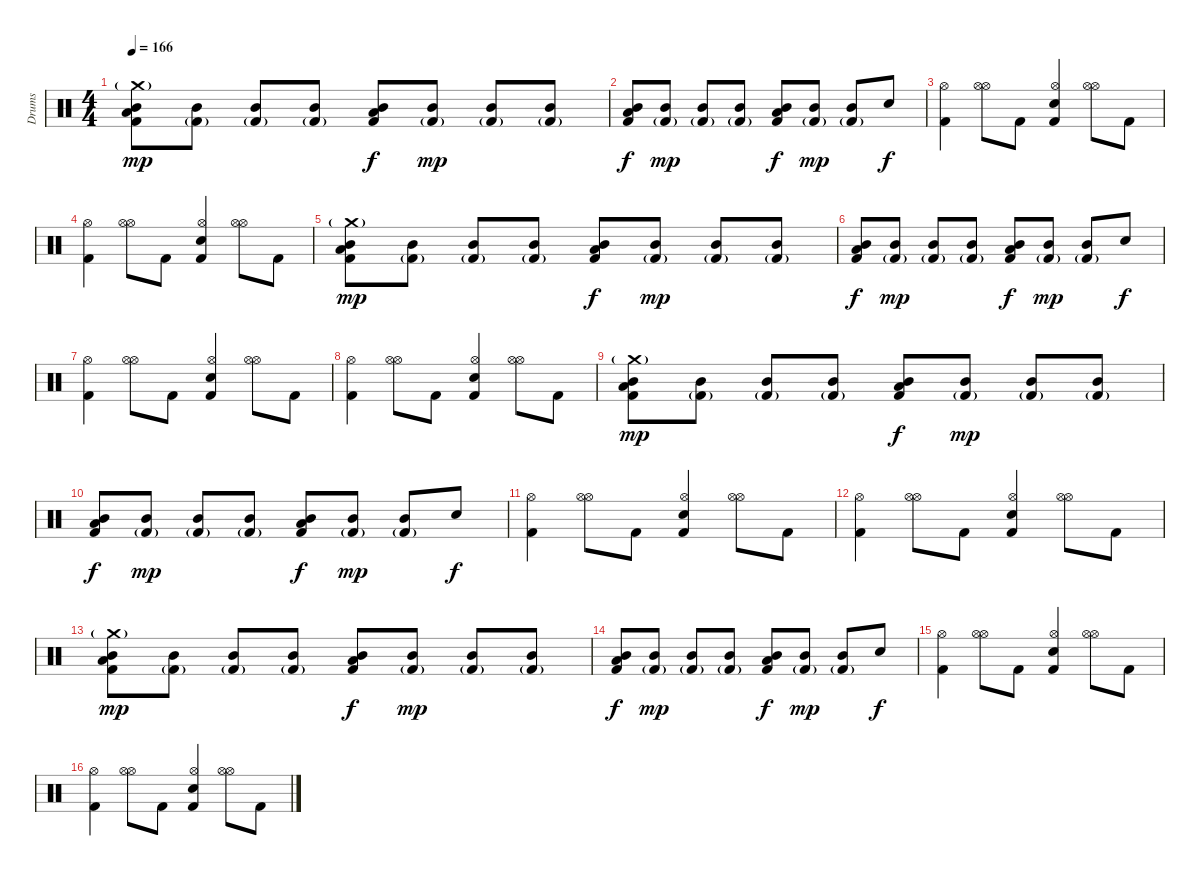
\track ("Drums" "Drums") {instrument percussion}
\staff {score}
\articulation defaults
\ts (4 4)
\tempo 166
\clef neutral
\ks c
("Crash medium (hit)"{g} "Low Floor Tom (hit)" "Kick (hit) 2" "Mid Tom (hit)").8{dy mp} ("Kick (hit) 2"{g} "Mid Tom (hit)").8 ("Kick (hit) 2"{g} "Mid Tom (hit)").8 ("Kick (hit) 2"{g} "Mid Tom (hit)").8 ("Low Floor Tom (hit)" "Kick (hit) 2" "Mid Tom (hit)").8{dy f} ("Kick (hit) 2"{g} "Mid Tom (hit)").8{dy mp} ("Kick (hit) 2"{g} "Mid Tom (hit)").8 ("Kick (hit) 2"{g} "Mid Tom (hit)").8 |
("Low Floor Tom (hit)" "Kick (hit) 2" "Mid Tom (hit)").8{dy f} ("Kick (hit) 2"{g} "Mid Tom (hit)").8{dy mp} ("Kick (hit) 2"{g} "Mid Tom (hit)").8 ("Kick (hit) 2"{g} "Mid Tom (hit)").8 ("Low Floor Tom (hit)" "Kick (hit) 2" "Mid Tom (hit)").8{dy f} ("Kick (hit) 2"{g} "Mid Tom (hit)").8{dy mp} ("Kick (hit) 2"{g} "Mid Tom (hit)").8 "Snare (hit) 2".8{dy f} |
("Hi-Hat (open)" "Kick (hit) 2").4 ("Hi-Hat (open)" "Hi-Hat (open)").8 "Kick (hit) 2".8 ("Hi-Hat (open)" "Kick (hit) 2" "Electric Snare (hit)").4 ("Hi-Hat (open)" "Hi-Hat (open)").8 "Kick (hit) 2".8 |
("Hi-Hat (open)" "Kick (hit) 2").4 ("Hi-Hat (open)" "Hi-Hat (open)").8 "Kick (hit) 2".8 ("Hi-Hat (open)" "Kick (hit) 2" "Electric Snare (hit)").4 ("Hi-Hat (open)" "Hi-Hat (open)").8 "Kick (hit) 2".8 |
("Crash medium (hit)"{g} "Low Floor Tom (hit)" "Kick (hit) 2" "Mid Tom (hit)").8{dy mp} ("Kick (hit) 2"{g} "Mid Tom (hit)").8 ("Kick (hit) 2"{g} "Mid Tom (hit)").8 ("Kick (hit) 2"{g} "Mid Tom (hit)").8 ("Low Floor Tom (hit)" "Kick (hit) 2" "Mid Tom (hit)").8{dy f} ("Kick (hit) 2"{g} "Mid Tom (hit)").8{dy mp} ("Kick (hit) 2"{g} "Mid Tom (hit)").8 ("Kick (hit) 2"{g} "Mid Tom (hit)").8 |
("Low Floor Tom (hit)" "Kick (hit) 2" "Mid Tom (hit)").8{dy f} ("Kick (hit) 2"{g} "Mid Tom (hit)").8{dy mp} ("Kick (hit) 2"{g} "Mid Tom (hit)").8 ("Kick (hit) 2"{g} "Mid Tom (hit)").8 ("Low Floor Tom (hit)" "Kick (hit) 2" "Mid Tom (hit)").8{dy f} ("Kick (hit) 2"{g} "Mid Tom (hit)").8{dy mp} ("Kick (hit) 2"{g} "Mid Tom (hit)").8 "Snare (hit) 2".8{dy f} |
("Hi-Hat (open)" "Kick (hit) 2").4 ("Hi-Hat (open)" "Hi-Hat (open)").8 "Kick (hit) 2".8 ("Hi-Hat (open)" "Kick (hit) 2" "Electric Snare (hit)").4 ("Hi-Hat (open)" "Hi-Hat (open)").8 "Kick (hit) 2".8 |
("Hi-Hat (open)" "Kick (hit) 2").4 ("Hi-Hat (open)" "Hi-Hat (open)").8 "Kick (hit) 2".8 ("Hi-Hat (open)" "Kick (hit) 2" "Electric Snare (hit)").4 ("Hi-Hat (open)" "Hi-Hat (open)").8 "Kick (hit) 2".8 |
("Crash medium (hit)"{g} "Low Floor Tom (hit)" "Kick (hit) 2" "Mid Tom (hit)").8{dy mp} ("Kick (hit) 2"{g} "Mid Tom (hit)").8 ("Kick (hit) 2"{g} "Mid Tom (hit)").8 ("Kick (hit) 2"{g} "Mid Tom (hit)").8 ("Low Floor Tom (hit)" "Kick (hit) 2" "Mid Tom (hit)").8{dy f} ("Kick (hit) 2"{g} "Mid Tom (hit)").8{dy mp} ("Kick (hit) 2"{g} "Mid Tom (hit)").8 ("Kick (hit) 2"{g} "Mid Tom (hit)").8 |
("Low Floor Tom (hit)" "Kick (hit) 2" "Mid Tom (hit)").8{dy f} ("Kick (hit) 2"{g} "Mid Tom (hit)").8{dy mp} ("Kick (hit) 2"{g} "Mid Tom (hit)").8 ("Kick (hit) 2"{g} "Mid Tom (hit)").8 ("Low Floor Tom (hit)" "Kick (hit) 2" "Mid Tom (hit)").8{dy f} ("Kick (hit) 2"{g} "Mid Tom (hit)").8{dy mp} ("Kick (hit) 2"{g} "Mid Tom (hit)").8 "Snare (hit) 2".8{dy f} |
("Hi-Hat (open)" "Kick (hit) 2").4 ("Hi-Hat (open)" "Hi-Hat (open)").8 "Kick (hit) 2".8 ("Hi-Hat (open)" "Kick (hit) 2" "Electric Snare (hit)").4 ("Hi-Hat (open)" "Hi-Hat (open)").8 "Kick (hit) 2".8 |
("Hi-Hat (open)" "Kick (hit) 2").4 ("Hi-Hat (open)" "Hi-Hat (open)").8 "Kick (hit) 2".8 ("Hi-Hat (open)" "Kick (hit) 2" "Electric Snare (hit)").4 ("Hi-Hat (open)" "Hi-Hat (open)").8 "Kick (hit) 2".8 |
("Crash medium (hit)"{g} "Low Floor Tom (hit)" "Kick (hit) 2" "Mid Tom (hit)").8{dy mp} ("Kick (hit) 2"{g} "Mid Tom (hit)").8 ("Kick (hit) 2"{g} "Mid Tom (hit)").8 ("Kick (hit) 2"{g} "Mid Tom (hit)").8 ("Low Floor Tom (hit)" "Kick (hit) 2" "Mid Tom (hit)").8{dy f} ("Kick (hit) 2"{g} "Mid Tom (hit)").8{dy mp} ("Kick (hit) 2"{g} "Mid Tom (hit)").8 ("Kick (hit) 2"{g} "Mid Tom (hit)").8 |
("Low Floor Tom (hit)" "Kick (hit) 2" "Mid Tom (hit)").8{dy f} ("Kick (hit) 2"{g} "Mid Tom (hit)").8{dy mp} ("Kick (hit) 2"{g} "Mid Tom (hit)").8 ("Kick (hit) 2"{g} "Mid Tom (hit)").8 ("Low Floor Tom (hit)" "Kick (hit) 2" "Mid Tom (hit)").8{dy f} ("Kick (hit) 2"{g} "Mid Tom (hit)").8{dy mp} ("Kick (hit) 2"{g} "Mid Tom (hit)").8 "Snare (hit) 2".8{dy f} |
("Hi-Hat (open)" "Kick (hit) 2").4 ("Hi-Hat (open)" "Hi-Hat (open)").8 "Kick (hit) 2".8 ("Hi-Hat (open)" "Kick (hit) 2" "Electric Snare (hit)").4 ("Hi-Hat (open)" "Hi-Hat (open)").8 "Kick (hit) 2".8 |
("Hi-Hat (open)" "Kick (hit) 2").4 ("Hi-Hat (open)" "Hi-Hat (open)").8 "Kick (hit) 2".8 ("Hi-Hat (open)" "Kick (hit) 2" "Electric Snare (hit)").4 ("Hi-Hat (open)" "Hi-Hat (open)").8 "Kick (hit) 2".8
